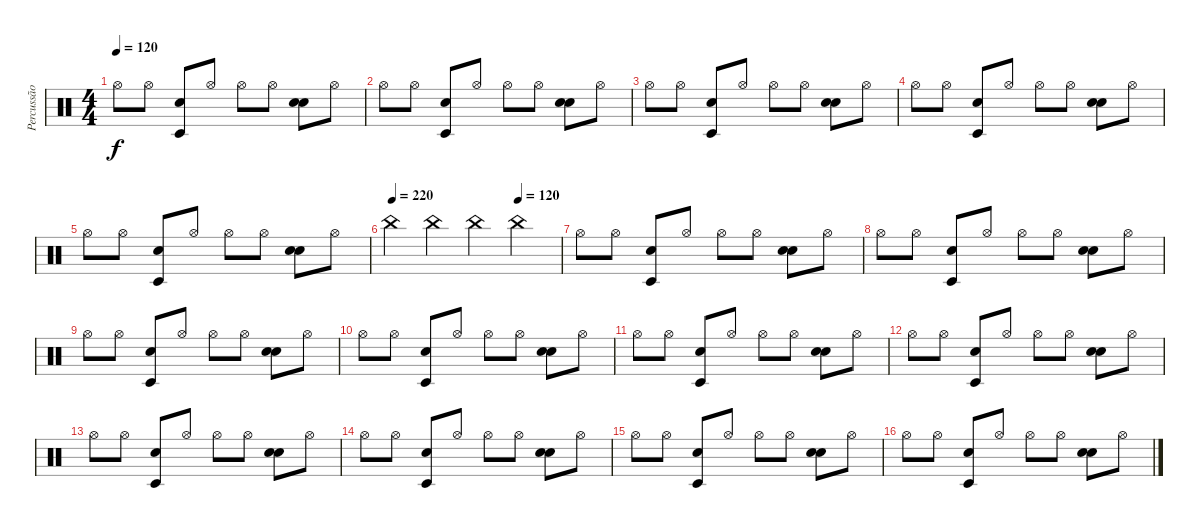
\track ("Percussão" "Percussão") {instrument percussion}
\staff {score}
\articulation defaults
\ts (4 4)
\tempo 120
\clef neutral
\ks c "Hi-Hat (open)".8{dy f} "Hi-Hat (open)".8
("Timbale low (hit)" "Snare (hit) 2").8 "Hi-Hat (open)".8 "Hi-Hat (open)".8 "Hi-Hat (open)".8 ("Hand Clap (hit)" "Snare (hit) 2").8 "Hi-Hat (open)".8 |
"Hi-Hat (open)".8 "Hi-Hat (open)".8 ("Timbale low (hit)" "Snare (hit) 2").8 "Hi-Hat (open)".8 "Hi-Hat (open)".8 "Hi-Hat (open)".8 ("Hand Clap (hit)" "Snare (hit) 2").8 "Hi-Hat (open)".8 |
"Hi-Hat (open)".8 "Hi-Hat (open)".8 ("Timbale low (hit)" "Snare (hit) 2").8 "Hi-Hat (open)".8 "Hi-Hat (open)".8 "Hi-Hat (open)".8 ("Hand Clap (hit)" "Snare (hit) 2").8 "Hi-Hat (open)".8 |
"Hi-Hat (open)".8 "Hi-Hat (open)".8 ("Timbale low (hit)" "Snare (hit) 2").8 "Hi-Hat (open)".8 "Hi-Hat (open)".8 "Hi-Hat (open)".8 ("Hand Clap (hit)" "Snare (hit) 2").8 "Hi-Hat (open)".8 |
"Hi-Hat (open)".8 "Hi-Hat (open)".8 ("Timbale low (hit)" "Snare (hit) 2").8 "Hi-Hat (open)".8 "Hi-Hat (open)".8 "Hi-Hat (open)".8 ("Hand Clap (hit)" "Snare (hit) 2").8 "Hi-Hat (open)".8 |
\tempo 220
\tempo (120 0.75)
"China (hit)".4 "China (hit)".4 "China (hit)".4 "China (hit)".4 |
"Hi-Hat (open)".8 "Hi-Hat (open)".8 ("Timbale low (hit)" "Snare (hit) 2").8 "Hi-Hat (open)".8 "Hi-Hat (open)".8 "Hi-Hat (open)".8 ("Hand Clap (hit)" "Snare (hit) 2").8 "Hi-Hat (open)".8 |
"Hi-Hat (open)".8 "Hi-Hat (open)".8 ("Timbale low (hit)" "Snare (hit) 2").8 "Hi-Hat (open)".8 "Hi-Hat (open)".8 "Hi-Hat (open)".8 ("Hand Clap (hit)" "Snare (hit) 2").8 "Hi-Hat (open)".8 |
"Hi-Hat (open)".8 "Hi-Hat (open)".8 ("Timbale low (hit)" "Snare (hit) 2").8 "Hi-Hat (open)".8 "Hi-Hat (open)".8 "Hi-Hat (open)".8 ("Hand Clap (hit)" "Snare (hit) 2").8 "Hi-Hat (open)".8 |
"Hi-Hat (open)".8 "Hi-Hat (open)".8 ("Timbale low (hit)" "Snare (hit) 2").8 "Hi-Hat (open)".8 "Hi-Hat (open)".8 "Hi-Hat (open)".8 ("Hand Clap (hit)" "Snare (hit) 2").8 "Hi-Hat (open)".8 |
"Hi-Hat (open)".8 "Hi-Hat (open)".8 ("Timbale low (hit)" "Snare (hit) 2").8 "Hi-Hat (open)".8 "Hi-Hat (open)".8 "Hi-Hat (open)".8 ("Hand Clap (hit)" "Snare (hit) 2").8 "Hi-Hat (open)".8 |
"Hi-Hat (open)".8 "Hi-Hat (open)".8 ("Timbale low (hit)" "Snare (hit) 2").8 "Hi-Hat (open)".8 "Hi-Hat (open)".8 "Hi-Hat (open)".8 ("Hand Clap (hit)" "Snare (hit) 2").8 "Hi-Hat (open)".8 |
"Hi-Hat (open)".8 "Hi-Hat (open)".8 ("Timbale low (hit)" "Snare (hit) 2").8 "Hi-Hat (open)".8 "Hi-Hat (open)".8 "Hi-Hat (open)".8 ("Hand Clap (hit)" "Snare (hit) 2").8 "Hi-Hat (open)".8 |
"Hi-Hat (open)".8 "Hi-Hat (open)".8 ("Timbale low (hit)" "Snare (hit) 2").8 "Hi-Hat (open)".8 "Hi-Hat (open)".8 "Hi-Hat (open)".8 ("Hand Clap (hit)" "Snare (hit) 2").8 "Hi-Hat (open)".8 |
"Hi-Hat (open)".8 "Hi-Hat (open)".8 ("Timbale low (hit)" "Snare (hit) 2").8 "Hi-Hat (open)".8 "Hi-Hat (open)".8 "Hi-Hat (open)".8 ("Hand Clap (hit)" "Snare (hit) 2").8 "Hi-Hat (open)".8 |
"Hi-Hat (open)".8 "Hi-Hat (open)".8 ("Timbale low (hit)" "Snare (hit) 2").8 "Hi-Hat (open)".8 "Hi-Hat (open)".8 "Hi-Hat (open)".8 ("Hand Clap (hit)" "Snare (hit) 2").8 "Hi-Hat (open)".8
